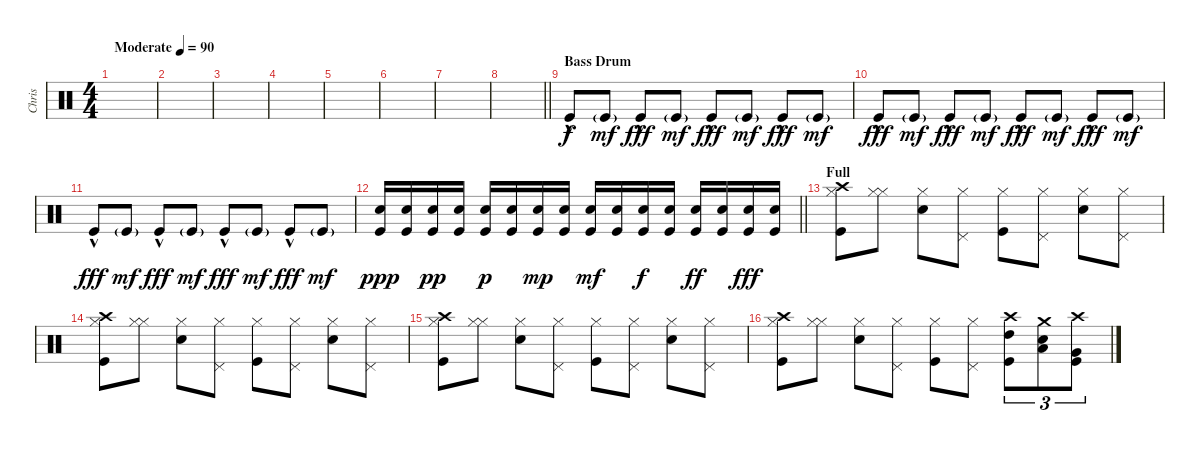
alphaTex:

\track ("Chris" "Chris") {instrument percussion}
\staff {score}
\articulation defaults
\ts (4 4)
\tempo (90 "Moderate")
\clef neutral
\ks c
|
|
|
|
|
|
|
\barLineRight lightlight
|
\section ("" "Bass Drum")
"Kick (hit)"{hac}.8 "Kick (hit)"{g}.8{dy mf} "Kick (hit)"{hac}.8{dy fff} "Kick (hit)"{g}.8{dy mf} "Kick (hit)"{hac}.8{dy fff} "Kick (hit)"{g}.8{dy mf} "Kick (hit)"{hac}.8{dy fff} "Kick (hit)"{g}.8{dy mf} |
"Kick (hit)"{hac}.8{dy fff} "Kick (hit)"{g}.8{dy mf} "Kick (hit)"{hac}.8{dy fff} "Kick (hit)"{g}.8{dy mf} "Kick (hit)"{hac}.8{dy fff} "Kick (hit)"{g}.8{dy mf} "Kick (hit)"{hac}.8{dy fff} "Kick (hit)"{g}.8{dy mf} |
"Kick (hit)"{hac}.8{dy fff} "Kick (hit)"{g}.8{dy mf} "Kick (hit)"{hac}.8{dy fff} "Kick (hit)"{g}.8{dy mf} "Kick (hit)"{hac}.8{dy fff} "Kick (hit)"{g}.8{dy mf} "Kick (hit)"{hac}.8{dy fff} "Kick (hit)"{g}.8{dy mf} |
\barLineRight lightlight
("Kick (hit)" "Snare (hit) 2").16{dy ppp} ("Kick (hit)" "Snare (hit) 2").16 ("Kick (hit)" "Snare (hit) 2").16{dy pp} ("Kick (hit)" "Snare (hit) 2").16 ("Kick (hit)" "Snare (hit) 2").16{dy p} ("Kick (hit)" "Snare (hit) 2").16 ("Kick (hit)" "Snare (hit) 2").16{dy mp} ("Kick (hit)" "Snare (hit) 2").16 ("Kick (hit)" "Snare (hit) 2").16{dy mf} ("Kick (hit)" "Snare (hit) 2").16 ("Kick (hit)" "Snare (hit) 2").16{dy f} ("Kick (hit)" "Snare (hit) 2").16 ("Kick (hit)" "Snare (hit) 2").16{dy ff} ("Kick (hit)" "Snare (hit) 2").16 ("Kick (hit)" "Snare (hit) 2").16{dy fff} ("Kick (hit)" "Snare (hit) 2").16 |
\section ("" "Full")
("Crash high (hit)" "Hi-Hat (closed)" "Kick (hit)").8 ("Hi-Hat (closed)" "Hi-Hat (closed)").8 ("Hi-Hat (closed)" "Snare (hit) 2").8 ("Hi-Hat (closed)" "Pedal Hi-Hat (hit)").8 ("Hi-Hat (closed)" "Kick (hit)").8 ("Hi-Hat (closed)" "Pedal Hi-Hat (hit)").8 ("Hi-Hat (closed)" "Snare (hit) 2").8 ("Hi-Hat (closed)" "Pedal Hi-Hat (hit)").8 |
("Crash high (hit)" "Hi-Hat (closed)" "Kick (hit)").8 ("Hi-Hat (closed)" "Hi-Hat (closed)").8 ("Hi-Hat (closed)" "Snare (hit) 2").8 ("Hi-Hat (closed)" "Pedal Hi-Hat (hit)").8 ("Hi-Hat (closed)" "Kick (hit)").8 ("Hi-Hat (closed)" "Pedal Hi-Hat (hit)").8 ("Hi-Hat (closed)" "Snare (hit) 2").8 ("Hi-Hat (closed)" "Pedal Hi-Hat (hit)").8 |
("Crash high (hit)" "Hi-Hat (closed)" "Kick (hit)").8 ("Hi-Hat (closed)" "Hi-Hat (closed)").8 ("Hi-Hat (closed)" "Snare (hit) 2").8 ("Hi-Hat (closed)" "Pedal Hi-Hat (hit)").8 ("Hi-Hat (closed)" "Kick (hit)").8 ("Hi-Hat (closed)" "Pedal Hi-Hat (hit)").8 ("Hi-Hat (closed)" "Snare (hit) 2").8 ("Hi-Hat (closed)" "Pedal Hi-Hat (hit)").8 |
("Crash high (hit)" "Hi-Hat (closed)" "Kick (hit)").8 ("Hi-Hat (closed)" "Hi-Hat (closed)").8 ("Hi-Hat (closed)" "Snare (hit) 2").8 ("Hi-Hat (closed)" "Pedal Hi-Hat (hit)").8 ("Hi-Hat (closed)" "Kick (hit)").8 ("Hi-Hat (closed)" "Pedal Hi-Hat (hit)").8 ("Kick (hit)" "High Tom (hit)" "Crash high (hit)").8{tu (3 2)} ("Snare (hit) 2" "Low Tom (hit)" "Crash medium (hit)").8{tu (3 2)} ("Kick (hit)" "Very Low Tom (hit)" "Crash high (hit)").8{tu (3 2)}
